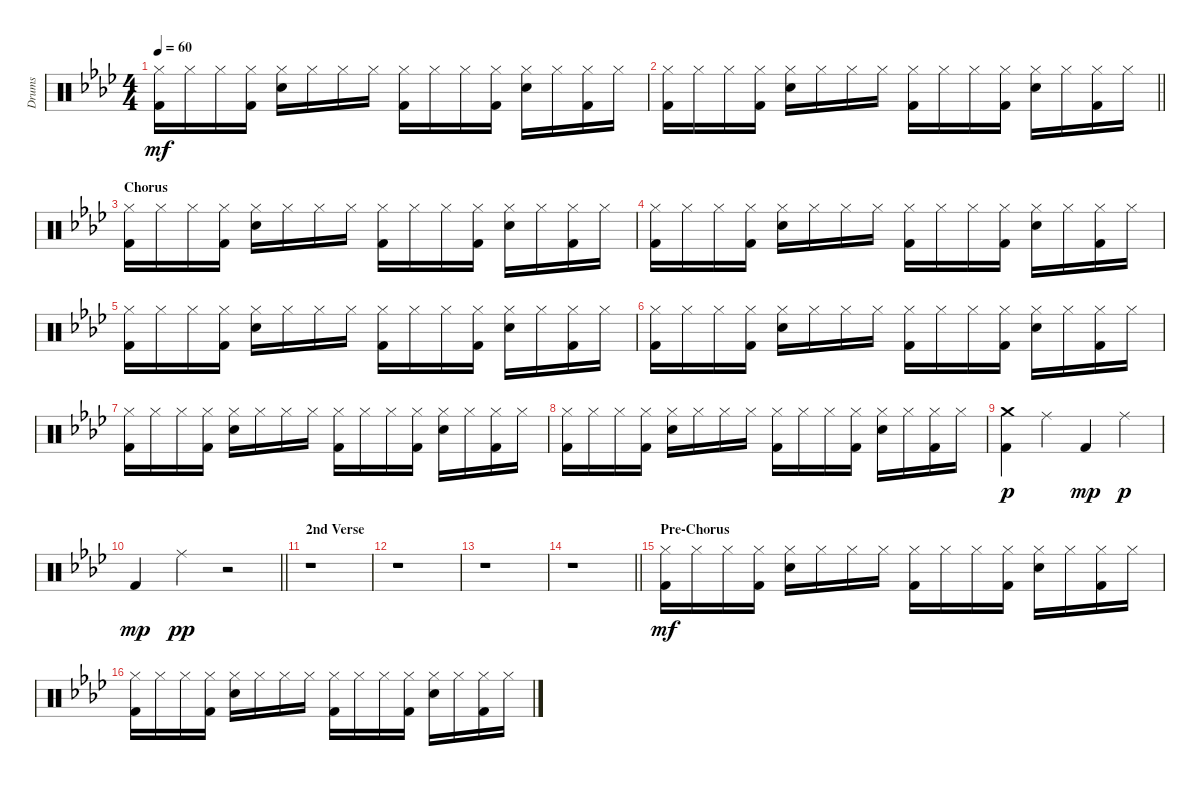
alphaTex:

\track ("Drums" "Drums") {instrument percussion}
\staff {score}
\articulation defaults
\ts (4 4)
\tempo 60
\clef neutral
\ks fminor
("Hi-Hat (closed)" "Kick (hit) 2").16{dy mf} "Hi-Hat (closed)".16 "Hi-Hat (closed)".16 ("Hi-Hat (closed)" "Kick (hit) 2").16 ("Hi-Hat (closed)" "Snare (hit) 2").16 "Hi-Hat (closed)".16 "Hi-Hat (closed)".16 "Hi-Hat (closed)".16 ("Hi-Hat (closed)" "Kick (hit) 2").16 "Hi-Hat (closed)".16 "Hi-Hat (closed)".16 ("Hi-Hat (closed)" "Kick (hit) 2").16 ("Hi-Hat (closed)" "Snare (hit) 2").16 "Hi-Hat (closed)".16 ("Hi-Hat (closed)" "Kick (hit) 2").16 "Hi-Hat (closed)".16 |
\barLineRight lightlight
("Hi-Hat (closed)" "Kick (hit) 2").16 "Hi-Hat (closed)".16 "Hi-Hat (closed)".16 ("Hi-Hat (closed)" "Kick (hit) 2").16 ("Hi-Hat (closed)" "Snare (hit) 2").16 "Hi-Hat (closed)".16 "Hi-Hat (closed)".16 "Hi-Hat (closed)".16 ("Hi-Hat (closed)" "Kick (hit) 2").16 "Hi-Hat (closed)".16 "Hi-Hat (closed)".16 ("Hi-Hat (closed)" "Kick (hit) 2").16 ("Hi-Hat (closed)" "Snare (hit) 2").16 "Hi-Hat (closed)".16 ("Hi-Hat (closed)" "Kick (hit) 2").16 "Hi-Hat (closed)".16 |
\section ("" "Chorus")
("Hi-Hat (closed)" "Kick (hit) 2").16 "Hi-Hat (closed)".16 "Hi-Hat (closed)".16 ("Hi-Hat (closed)" "Kick (hit) 2").16 ("Hi-Hat (closed)" "Snare (hit) 2").16 "Hi-Hat (closed)".16 "Hi-Hat (closed)".16 "Hi-Hat (closed)".16 ("Hi-Hat (closed)" "Kick (hit) 2").16 "Hi-Hat (closed)".16 "Hi-Hat (closed)".16 ("Hi-Hat (closed)" "Kick (hit) 2").16 ("Hi-Hat (closed)" "Snare (hit) 2").16 "Hi-Hat (closed)".16 ("Hi-Hat (closed)" "Kick (hit) 2").16 "Hi-Hat (closed)".16 |
("Hi-Hat (closed)" "Kick (hit) 2").16 "Hi-Hat (closed)".16 "Hi-Hat (closed)".16 ("Hi-Hat (closed)" "Kick (hit) 2").16 ("Hi-Hat (closed)" "Snare (hit) 2").16 "Hi-Hat (closed)".16 "Hi-Hat (closed)".16 "Hi-Hat (closed)".16 ("Hi-Hat (closed)" "Kick (hit) 2").16 "Hi-Hat (closed)".16 "Hi-Hat (closed)".16 ("Hi-Hat (closed)" "Kick (hit) 2").16 ("Hi-Hat (closed)" "Snare (hit) 2").16 "Hi-Hat (closed)".16 ("Hi-Hat (closed)" "Kick (hit) 2").16 "Hi-Hat (closed)".16 |
("Hi-Hat (closed)" "Kick (hit) 2").16 "Hi-Hat (closed)".16 "Hi-Hat (closed)".16 ("Hi-Hat (closed)" "Kick (hit) 2").16 ("Hi-Hat (closed)" "Snare (hit) 2").16 "Hi-Hat (closed)".16 "Hi-Hat (closed)".16 "Hi-Hat (closed)".16 ("Hi-Hat (closed)" "Kick (hit) 2").16 "Hi-Hat (closed)".16 "Hi-Hat (closed)".16 ("Hi-Hat (closed)" "Kick (hit) 2").16 ("Hi-Hat (closed)" "Snare (hit) 2").16 "Hi-Hat (closed)".16 ("Hi-Hat (closed)" "Kick (hit) 2").16 "Hi-Hat (closed)".16 |
("Hi-Hat (closed)" "Kick (hit) 2").16 "Hi-Hat (closed)".16 "Hi-Hat (closed)".16 ("Hi-Hat (closed)" "Kick (hit) 2").16 ("Hi-Hat (closed)" "Snare (hit) 2").16 "Hi-Hat (closed)".16 "Hi-Hat (closed)".16 "Hi-Hat (closed)".16 ("Hi-Hat (closed)" "Kick (hit) 2").16 "Hi-Hat (closed)".16 "Hi-Hat (closed)".16 ("Hi-Hat (closed)" "Kick (hit) 2").16 ("Hi-Hat (closed)" "Snare (hit) 2").16 "Hi-Hat (closed)".16 ("Hi-Hat (closed)" "Kick (hit) 2").16 "Hi-Hat (closed)".16 |
("Hi-Hat (closed)" "Kick (hit) 2").16 "Hi-Hat (closed)".16 "Hi-Hat (closed)".16 ("Hi-Hat (closed)" "Kick (hit) 2").16 ("Hi-Hat (closed)" "Snare (hit) 2").16 "Hi-Hat (closed)".16 "Hi-Hat (closed)".16 "Hi-Hat (closed)".16 ("Hi-Hat (closed)" "Kick (hit) 2").16 "Hi-Hat (closed)".16 "Hi-Hat (closed)".16 ("Hi-Hat (closed)" "Kick (hit) 2").16 ("Hi-Hat (closed)" "Snare (hit) 2").16 "Hi-Hat (closed)".16 ("Hi-Hat (closed)" "Kick (hit) 2").16 "Hi-Hat (closed)".16 |
("Hi-Hat (closed)" "Kick (hit) 2").16 "Hi-Hat (closed)".16 "Hi-Hat (closed)".16 ("Hi-Hat (closed)" "Kick (hit) 2").16 ("Hi-Hat (closed)" "Snare (hit) 2").16 "Hi-Hat (closed)".16 "Hi-Hat (closed)".16 "Hi-Hat (closed)".16 ("Hi-Hat (closed)" "Kick (hit) 2").16 "Hi-Hat (closed)".16 "Hi-Hat (closed)".16 ("Hi-Hat (closed)" "Kick (hit) 2").16 ("Hi-Hat (closed)" "Snare (hit) 2").16 "Hi-Hat (closed)".16 ("Hi-Hat (closed)" "Kick (hit) 2").16 "Hi-Hat (closed)".16 |
("Kick (hit) 2" "Crash medium (hit)").4{dy p} "Ride (middle)".4 "Kick (hit) 2".4{dy mp} "Ride (middle)".4{dy p} |
\barLineRight lightlight "Kick (hit) 2".4{dy mp} "Ride (middle)".4{dy pp}
r.2 |
\section ("" "2nd Verse")
r.1 |
r.1 |
r.1 |
\barLineRight lightlight
r.1 |
\section ("" "Pre-Chorus")
("Hi-Hat (closed)" "Kick (hit) 2").16{dy mf} "Hi-Hat (closed)".16 "Hi-Hat (closed)".16 ("Hi-Hat (closed)" "Kick (hit) 2").16 ("Hi-Hat (closed)" "Snare (hit) 2").16 "Hi-Hat (closed)".16 "Hi-Hat (closed)".16 "Hi-Hat (closed)".16 ("Hi-Hat (closed)" "Kick (hit) 2").16 "Hi-Hat (closed)".16 "Hi-Hat (closed)".16 ("Hi-Hat (closed)" "Kick (hit) 2").16 ("Hi-Hat (closed)" "Snare (hit) 2").16 "Hi-Hat (closed)".16 ("Hi-Hat (closed)" "Kick (hit) 2").16 "Hi-Hat (closed)".16 |
("Hi-Hat (closed)" "Kick (hit) 2").16 "Hi-Hat (closed)".16 "Hi-Hat (closed)".16 ("Hi-Hat (closed)" "Kick (hit) 2").16 ("Hi-Hat (closed)" "Snare (hit) 2").16 "Hi-Hat (closed)".16 "Hi-Hat (closed)".16 "Hi-Hat (closed)".16 ("Hi-Hat (closed)" "Kick (hit) 2").16 "Hi-Hat (closed)".16 "Hi-Hat (closed)".16 ("Hi-Hat (closed)" "Kick (hit) 2").16 ("Hi-Hat (closed)" "Snare (hit) 2").16 "Hi-Hat (closed)".16 ("Hi-Hat (closed)" "Kick (hit) 2").16 "Hi-Hat (closed)".16
